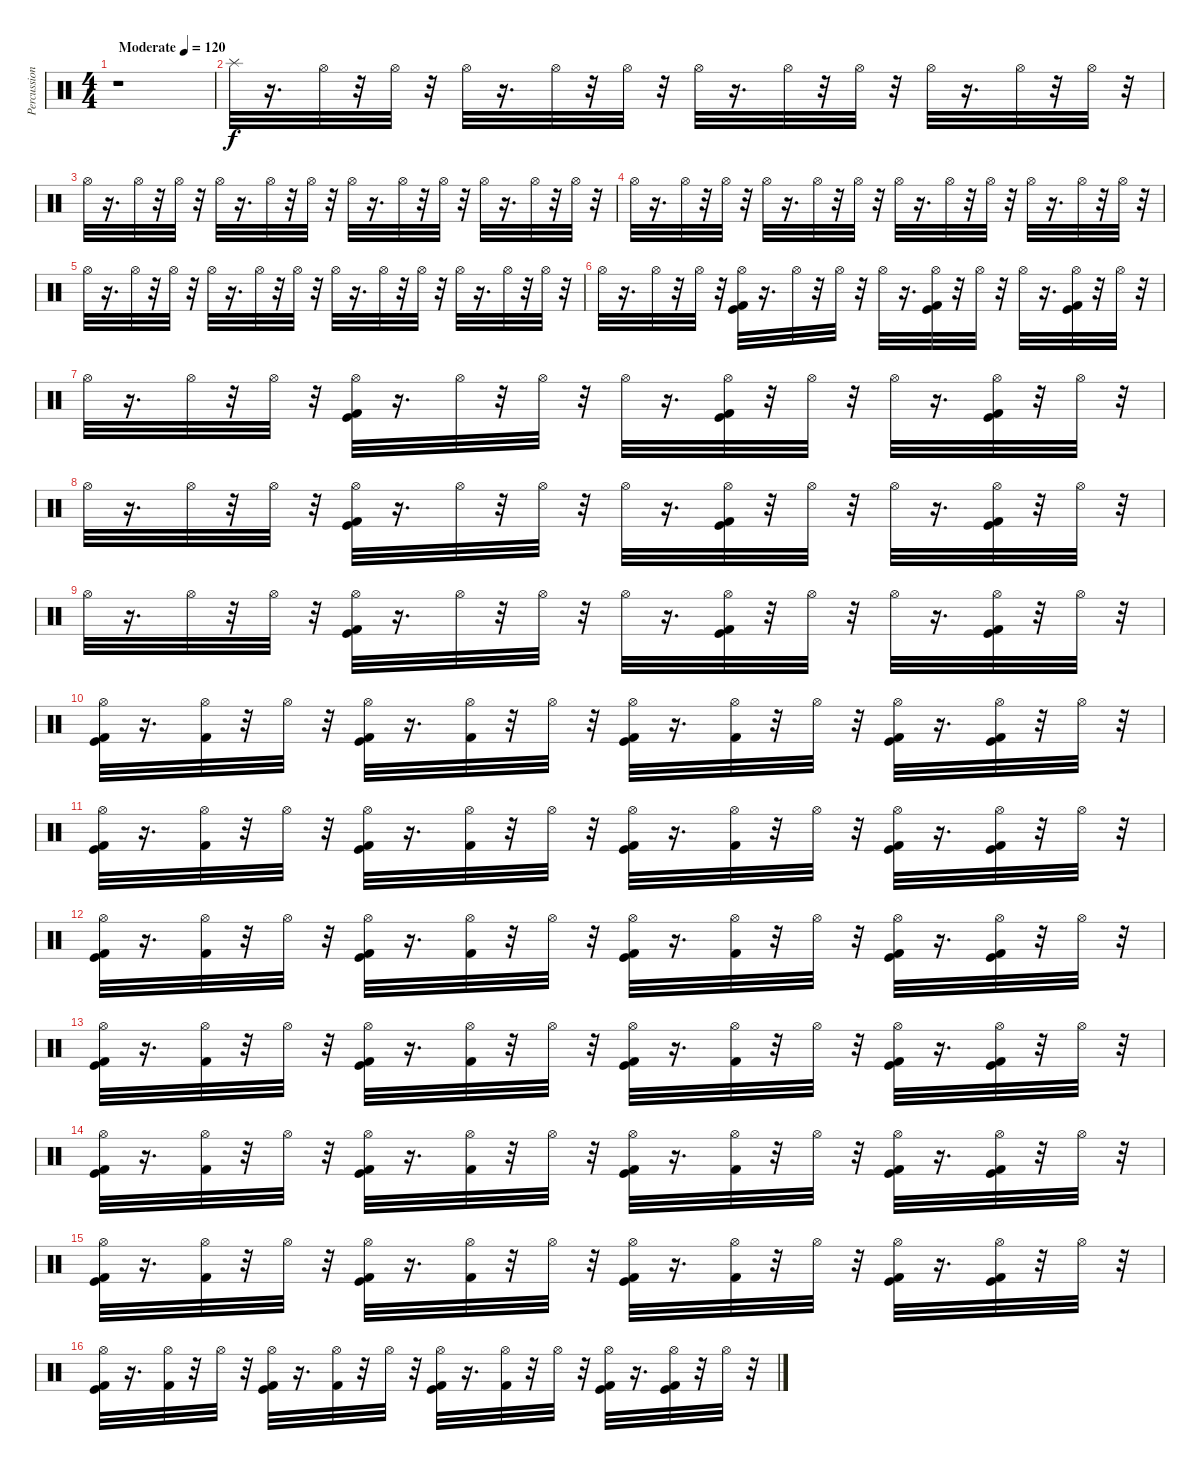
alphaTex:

\track ("Percussion" "Percussion") {instrument percussion}
\staff {score}
\articulation defaults
\ts (4 4)
\tempo (120 "Moderate")
\clef neutral
\ks c
r.1{dy f} |
"Splash (hit)".32 r.16{d} "Hi-Hat (open)".32 r.32 "Hi-Hat (open)".32 r.32 "Hi-Hat (open)".32 r.16{d} "Hi-Hat (open)".32 r.32 "Hi-Hat (open)".32 r.32 "Hi-Hat (open)".32 r.16{d} "Hi-Hat (open)".32 r.32 "Hi-Hat (open)".32 r.32 "Hi-Hat (open)".32 r.16{d} "Hi-Hat (open)".32 r.32 "Hi-Hat (open)".32 r.32 |
"Hi-Hat (open)".32 r.16{d} "Hi-Hat (open)".32 r.32 "Hi-Hat (open)".32 r.32 "Hi-Hat (open)".32 r.16{d} "Hi-Hat (open)".32 r.32 "Hi-Hat (open)".32 r.32 "Hi-Hat (open)".32 r.16{d} "Hi-Hat (open)".32 r.32 "Hi-Hat (open)".32 r.32 "Hi-Hat (open)".32 r.16{d} "Hi-Hat (open)".32 r.32 "Hi-Hat (open)".32 r.32 |
"Hi-Hat (open)".32 r.16{d} "Hi-Hat (open)".32 r.32 "Hi-Hat (open)".32 r.32 "Hi-Hat (open)".32 r.16{d} "Hi-Hat (open)".32 r.32 "Hi-Hat (open)".32 r.32 "Hi-Hat (open)".32 r.16{d} "Hi-Hat (open)".32 r.32 "Hi-Hat (open)".32 r.32 "Hi-Hat (open)".32 r.16{d} "Hi-Hat (open)".32 r.32 "Hi-Hat (open)".32 r.32 |
"Hi-Hat (open)".32 r.16{d} "Hi-Hat (open)".32 r.32 "Hi-Hat (open)".32 r.32 "Hi-Hat (open)".32 r.16{d} "Hi-Hat (open)".32 r.32 "Hi-Hat (open)".32 r.32 "Hi-Hat (open)".32 r.16{d} "Hi-Hat (open)".32 r.32 "Hi-Hat (open)".32 r.32 "Hi-Hat (open)".32 r.16{d} "Hi-Hat (open)".32 r.32 "Hi-Hat (open)".32 r.32 |
"Hi-Hat (open)".32 r.16{d} "Hi-Hat (open)".32 r.32 "Hi-Hat (open)".32 r.32 ("Kick (hit)" "Kick (hit) 2" "Hi-Hat (open)").32 r.16{d} "Hi-Hat (open)".32 r.32 "Hi-Hat (open)".32 r.32 "Hi-Hat (open)".32 r.16{d} ("Kick (hit) 2" "Hi-Hat (open)" "Kick (hit)").32 r.32 "Hi-Hat (open)".32 r.32 "Hi-Hat (open)".32 r.16{d} ("Kick (hit)" "Kick (hit) 2" "Hi-Hat (open)").32 r.32 "Hi-Hat (open)".32 r.32 |
"Hi-Hat (open)".32 r.16{d} "Hi-Hat (open)".32 r.32 "Hi-Hat (open)".32 r.32 ("Hi-Hat (open)" "Kick (hit) 2" "Kick (hit)").32 r.16{d} "Hi-Hat (open)".32 r.32 "Hi-Hat (open)".32 r.32 "Hi-Hat (open)".32 r.16{d} ("Hi-Hat (open)" "Kick (hit) 2" "Kick (hit)").32 r.32 "Hi-Hat (open)".32 r.32 "Hi-Hat (open)".32 r.16{d} ("Hi-Hat (open)" "Kick (hit)" "Kick (hit) 2").32 r.32 "Hi-Hat (open)".32 r.32 |
"Hi-Hat (open)".32 r.16{d} "Hi-Hat (open)".32 r.32 "Hi-Hat (open)".32 r.32 ("Hi-Hat (open)" "Kick (hit)" "Kick (hit) 2").32 r.16{d} "Hi-Hat (open)".32 r.32 "Hi-Hat (open)".32 r.32 "Hi-Hat (open)".32 r.16{d} ("Hi-Hat (open)" "Kick (hit) 2" "Kick (hit)").32 r.32 "Hi-Hat (open)".32 r.32 "Hi-Hat (open)".32 r.16{d} ("Hi-Hat (open)" "Kick (hit)" "Kick (hit) 2").32 r.32 "Hi-Hat (open)".32 r.32 |
"Hi-Hat (open)".32 r.16{d} "Hi-Hat (open)".32 r.32 "Hi-Hat (open)".32 r.32 ("Hi-Hat (open)" "Kick (hit)" "Kick (hit) 2").32 r.16{d} "Hi-Hat (open)".32 r.32 "Hi-Hat (open)".32 r.32 "Hi-Hat (open)".32 r.16{d} ("Hi-Hat (open)" "Kick (hit) 2" "Kick (hit)").32 r.32 "Hi-Hat (open)".32 r.32 "Hi-Hat (open)".32 r.16{d} ("Hi-Hat (open)" "Kick (hit)" "Kick (hit) 2").32 r.32 "Hi-Hat (open)".32 r.32 |
("Kick (hit) 2" "Hi-Hat (open)" "Kick (hit)").32 r.16{d} ("Kick (hit) 2" "Hi-Hat (open)").32 r.32 "Hi-Hat (open)".32 r.32 ("Kick (hit)" "Kick (hit) 2" "Hi-Hat (open)").32 r.16{d} ("Kick (hit) 2" "Hi-Hat (open)").32 r.32 "Hi-Hat (open)".32 r.32 ("Kick (hit)" "Kick (hit) 2" "Hi-Hat (open)").32 r.16{d} ("Kick (hit) 2" "Hi-Hat (open)").32 r.32 "Hi-Hat (open)".32 r.32 ("Kick (hit)" "Kick (hit) 2" "Hi-Hat (open)").32 r.16{d} ("Kick (hit)" "Kick (hit) 2" "Hi-Hat (open)").32 r.32 "Hi-Hat (open)".32 r.32 |
("Hi-Hat (open)" "Kick (hit) 2" "Kick (hit)").32 r.16{d} ("Hi-Hat (open)" "Kick (hit) 2").32 r.32 "Hi-Hat (open)".32 r.32 ("Hi-Hat (open)" "Kick (hit)" "Kick (hit) 2").32 r.16{d} ("Hi-Hat (open)" "Kick (hit) 2").32 r.32 "Hi-Hat (open)".32 r.32 ("Hi-Hat (open)" "Kick (hit)" "Kick (hit) 2").32 r.16{d} ("Hi-Hat (open)" "Kick (hit) 2").32 r.32 "Hi-Hat (open)".32 r.32 ("Hi-Hat (open)" "Kick (hit)" "Kick (hit) 2").32 r.16{d} ("Hi-Hat (open)" "Kick (hit)" "Kick (hit) 2").32 r.32 "Hi-Hat (open)".32 r.32 |
("Hi-Hat (open)" "Kick (hit) 2" "Kick (hit)").32 r.16{d} ("Hi-Hat (open)" "Kick (hit) 2").32 r.32 "Hi-Hat (open)".32 r.32 ("Hi-Hat (open)" "Kick (hit)" "Kick (hit) 2").32 r.16{d} ("Hi-Hat (open)" "Kick (hit) 2").32 r.32 "Hi-Hat (open)".32 r.32 ("Hi-Hat (open)" "Kick (hit)" "Kick (hit) 2").32 r.16{d} ("Hi-Hat (open)" "Kick (hit) 2").32 r.32 "Hi-Hat (open)".32 r.32 ("Hi-Hat (open)" "Kick (hit)" "Kick (hit) 2").32 r.16{d} ("Hi-Hat (open)" "Kick (hit)" "Kick (hit) 2").32 r.32 "Hi-Hat (open)".32 r.32 |
("Hi-Hat (open)" "Kick (hit) 2" "Kick (hit)").32 r.16{d} ("Hi-Hat (open)" "Kick (hit) 2").32 r.32 "Hi-Hat (open)".32 r.32 ("Hi-Hat (open)" "Kick (hit)" "Kick (hit) 2").32 r.16{d} ("Hi-Hat (open)" "Kick (hit) 2").32 r.32 "Hi-Hat (open)".32 r.32 ("Hi-Hat (open)" "Kick (hit)" "Kick (hit) 2").32 r.16{d} ("Hi-Hat (open)" "Kick (hit) 2").32 r.32 "Hi-Hat (open)".32 r.32 ("Hi-Hat (open)" "Kick (hit)" "Kick (hit) 2").32 r.16{d} ("Hi-Hat (open)" "Kick (hit)" "Kick (hit) 2").32 r.32 "Hi-Hat (open)".32 r.32 |
("Hi-Hat (open)" "Kick (hit) 2" "Kick (hit)").32 r.16{d} ("Hi-Hat (open)" "Kick (hit) 2").32 r.32 "Hi-Hat (open)".32 r.32 ("Hi-Hat (open)" "Kick (hit)" "Kick (hit) 2").32 r.16{d} ("Hi-Hat (open)" "Kick (hit) 2").32 r.32 "Hi-Hat (open)".32 r.32 ("Hi-Hat (open)" "Kick (hit)" "Kick (hit) 2").32 r.16{d} ("Hi-Hat (open)" "Kick (hit) 2").32 r.32 "Hi-Hat (open)".32 r.32 ("Hi-Hat (open)" "Kick (hit)" "Kick (hit) 2").32 r.16{d} ("Hi-Hat (open)" "Kick (hit)" "Kick (hit) 2").32 r.32 "Hi-Hat (open)".32 r.32 |
("Hi-Hat (open)" "Kick (hit) 2" "Kick (hit)").32 r.16{d} ("Hi-Hat (open)" "Kick (hit) 2").32 r.32 "Hi-Hat (open)".32 r.32 ("Hi-Hat (open)" "Kick (hit)" "Kick (hit) 2").32 r.16{d} ("Hi-Hat (open)" "Kick (hit) 2").32 r.32 "Hi-Hat (open)".32 r.32 ("Hi-Hat (open)" "Kick (hit)" "Kick (hit) 2").32 r.16{d} ("Hi-Hat (open)" "Kick (hit) 2").32 r.32 "Hi-Hat (open)".32 r.32 ("Hi-Hat (open)" "Kick (hit)" "Kick (hit) 2").32 r.16{d} ("Hi-Hat (open)" "Kick (hit)" "Kick (hit) 2").32 r.32 "Hi-Hat (open)".32 r.32 |
("Hi-Hat (open)" "Kick (hit) 2" "Kick (hit)").32 r.16{d} ("Hi-Hat (open)" "Kick (hit) 2").32 r.32 "Hi-Hat (open)".32 r.32 ("Hi-Hat (open)" "Kick (hit)" "Kick (hit) 2").32 r.16{d} ("Hi-Hat (open)" "Kick (hit) 2").32 r.32 "Hi-Hat (open)".32 r.32 ("Hi-Hat (open)" "Kick (hit)" "Kick (hit) 2").32 r.16{d} ("Hi-Hat (open)" "Kick (hit) 2").32 r.32 "Hi-Hat (open)".32 r.32 ("Hi-Hat (open)" "Kick (hit)" "Kick (hit) 2").32 r.16{d} ("Hi-Hat (open)" "Kick (hit)" "Kick (hit) 2").32 r.32 "Hi-Hat (open)".32 r.32
